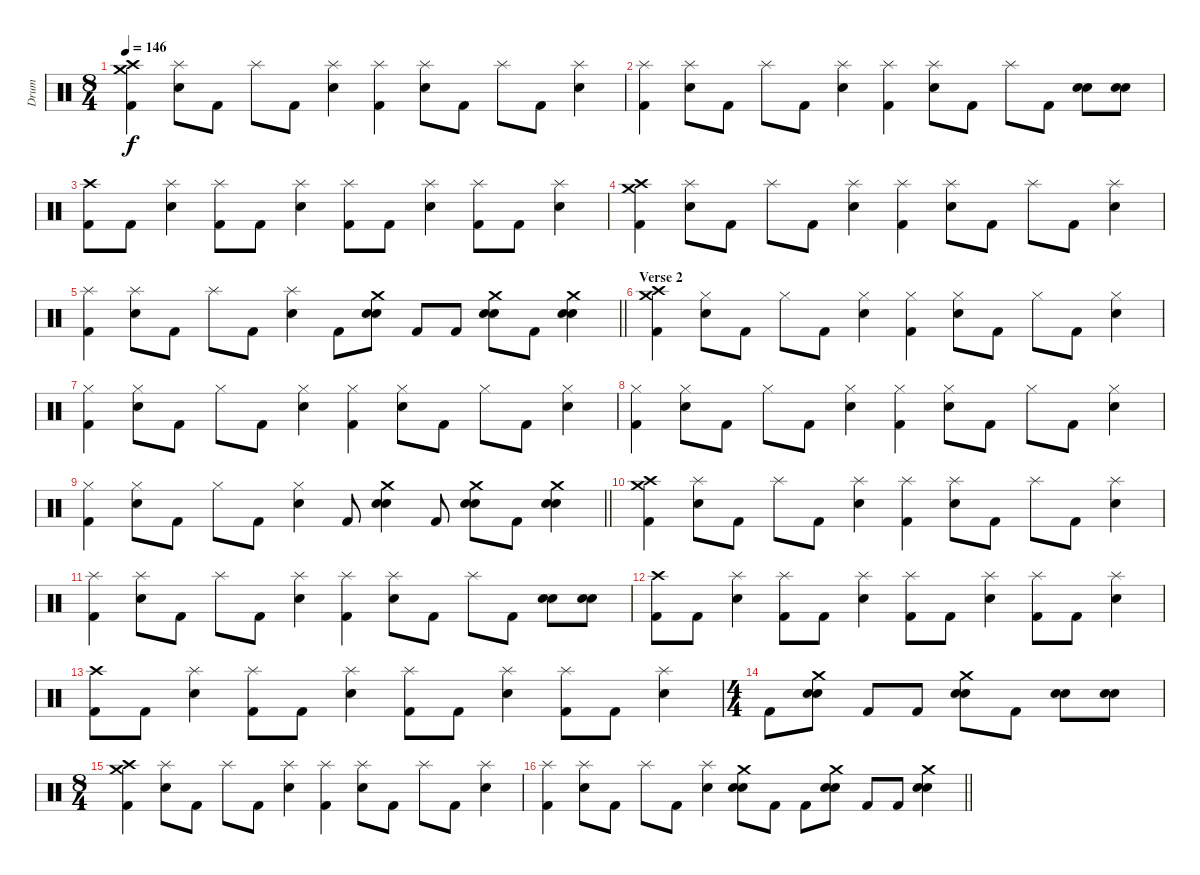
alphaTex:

\track ("Drum" "Drum") {instrument percussion}
\staff {score}
\articulation defaults
\ts (8 4)
\section ("" "")
\tempo 146
\clef neutral
\ks c
("Kick (hit) 2" "Crash high (hit)" "Crash medium (hit)").4{dy f} ("Splash (hit)" "Electric Snare (hit)").8 "Kick (hit) 2".8 "Splash (hit)".8 "Kick (hit) 2".8 ("Splash (hit)" "Electric Snare (hit)").4 ("Splash (hit)" "Kick (hit) 2").4 ("Splash (hit)" "Electric Snare (hit)").8 "Kick (hit) 2".8 "Splash (hit)".8 "Kick (hit) 2".8 ("Splash (hit)" "Electric Snare (hit)").4 |
("Splash (hit)" "Kick (hit) 2").4 ("Splash (hit)" "Electric Snare (hit)").8 "Kick (hit) 2".8 "Splash (hit)".8 "Kick (hit) 2".8 ("Splash (hit)" "Electric Snare (hit)").4 ("Splash (hit)" "Kick (hit) 2").4 ("Splash (hit)" "Electric Snare (hit)").8 "Kick (hit) 2".8 "Splash (hit)".8 "Kick (hit) 2".8 ("Electric Snare (hit)" "Electric Snare (hit)").8 ("Electric Snare (hit)" "Electric Snare (hit)").8 |
("Kick (hit) 2" "Crash high (hit)").8 "Kick (hit) 2".8 ("Splash (hit)" "Electric Snare (hit)").4 ("Splash (hit)" "Kick (hit) 2").8 "Kick (hit) 2".8 ("Splash (hit)" "Electric Snare (hit)").4 ("Splash (hit)" "Kick (hit) 2").8 "Kick (hit) 2".8 ("Splash (hit)" "Electric Snare (hit)").4 ("Splash (hit)" "Kick (hit) 2").8 "Kick (hit) 2".8 ("Splash (hit)" "Electric Snare (hit)").4 |
("Kick (hit) 2" "Crash high (hit)" "Crash medium (hit)").4 ("Splash (hit)" "Electric Snare (hit)").8 "Kick (hit) 2".8 "Splash (hit)".8 "Kick (hit) 2".8 ("Splash (hit)" "Electric Snare (hit)").4 ("Splash (hit)" "Kick (hit) 2").4 ("Splash (hit)" "Electric Snare (hit)").8 "Kick (hit) 2".8 "Splash (hit)".8 "Kick (hit) 2".8 ("Splash (hit)" "Electric Snare (hit)").4 |
\barLineRight lightlight
("Splash (hit)" "Kick (hit) 2").4 ("Splash (hit)" "Electric Snare (hit)").8 "Kick (hit) 2".8 "Splash (hit)".8 "Kick (hit) 2".8 ("Splash (hit)" "Electric Snare (hit)").4 "Kick (hit) 2".8 ("Electric Snare (hit)" "Electric Snare (hit)" "Crash medium (hit)").8 "Kick (hit) 2".8 "Kick (hit) 2".8 ("Electric Snare (hit)" "Electric Snare (hit)" "Crash medium (hit)").8 "Kick (hit) 2".8 ("Electric Snare (hit)" "Electric Snare (hit)" "Crash medium (hit)").4 |
\section ("" "Verse 2")
("Kick (hit) 2" "Crash high (hit)" "Crash medium (hit)").4 ("Hi-Hat (closed)" "Electric Snare (hit)").8 "Kick (hit) 2".8 "Hi-Hat (closed)".8 "Kick (hit) 2".8 ("Hi-Hat (closed)" "Electric Snare (hit)").4 ("Hi-Hat (closed)" "Kick (hit) 2").4 ("Hi-Hat (closed)" "Electric Snare (hit)").8 "Kick (hit) 2".8 "Hi-Hat (closed)".8 "Kick (hit) 2".8 ("Hi-Hat (closed)" "Electric Snare (hit)").4 |
("Hi-Hat (closed)" "Kick (hit) 2").4 ("Hi-Hat (closed)" "Electric Snare (hit)").8 "Kick (hit) 2".8 "Hi-Hat (closed)".8 "Kick (hit) 2".8 ("Hi-Hat (closed)" "Electric Snare (hit)").4 ("Hi-Hat (closed)" "Kick (hit) 2").4 ("Hi-Hat (closed)" "Electric Snare (hit)").8 "Kick (hit) 2".8 "Hi-Hat (closed)".8 "Kick (hit) 2".8 ("Hi-Hat (closed)" "Electric Snare (hit)").4 |
("Hi-Hat (closed)" "Kick (hit) 2").4 ("Hi-Hat (closed)" "Electric Snare (hit)").8 "Kick (hit) 2".8 "Hi-Hat (closed)".8 "Kick (hit) 2".8 ("Hi-Hat (closed)" "Electric Snare (hit)").4 ("Hi-Hat (closed)" "Kick (hit) 2").4 ("Hi-Hat (closed)" "Electric Snare (hit)").8 "Kick (hit) 2".8 "Hi-Hat (closed)".8 "Kick (hit) 2".8 ("Hi-Hat (closed)" "Electric Snare (hit)").4 |
\barLineRight lightlight
("Hi-Hat (closed)" "Kick (hit) 2").4 ("Hi-Hat (closed)" "Electric Snare (hit)").8 "Kick (hit) 2".8 "Hi-Hat (closed)".8 "Kick (hit) 2".8 ("Hi-Hat (closed)" "Electric Snare (hit)").4 "Kick (hit) 2".8 ("Electric Snare (hit)" "Electric Snare (hit)" "Crash medium (hit)").4 "Kick (hit) 2".8 ("Electric Snare (hit)" "Electric Snare (hit)" "Crash medium (hit)").8 "Kick (hit) 2".8 ("Electric Snare (hit)" "Electric Snare (hit)" "Crash medium (hit)").4 |
\section ("" "")
("Kick (hit) 2" "Crash high (hit)" "Crash medium (hit)").4 ("Splash (hit)" "Electric Snare (hit)").8 "Kick (hit) 2".8 "Splash (hit)".8 "Kick (hit) 2".8 ("Splash (hit)" "Electric Snare (hit)").4 ("Splash (hit)" "Kick (hit) 2").4 ("Splash (hit)" "Electric Snare (hit)").8 "Kick (hit) 2".8 "Splash (hit)".8 "Kick (hit) 2".8 ("Splash (hit)" "Electric Snare (hit)").4 |
("Splash (hit)" "Kick (hit) 2").4 ("Splash (hit)" "Electric Snare (hit)").8 "Kick (hit) 2".8 "Splash (hit)".8 "Kick (hit) 2".8 ("Splash (hit)" "Electric Snare (hit)").4 ("Splash (hit)" "Kick (hit) 2").4 ("Splash (hit)" "Electric Snare (hit)").8 "Kick (hit) 2".8 "Splash (hit)".8 "Kick (hit) 2".8 ("Electric Snare (hit)" "Electric Snare (hit)").8 ("Electric Snare (hit)" "Electric Snare (hit)").8 |
("Kick (hit) 2" "Crash high (hit)").8 "Kick (hit) 2".8 ("Splash (hit)" "Electric Snare (hit)").4 ("Splash (hit)" "Kick (hit) 2").8 "Kick (hit) 2".8 ("Splash (hit)" "Electric Snare (hit)").4 ("Splash (hit)" "Kick (hit) 2").8 "Kick (hit) 2".8 ("Splash (hit)" "Electric Snare (hit)").4 ("Splash (hit)" "Kick (hit) 2").8 "Kick (hit) 2".8 ("Splash (hit)" "Electric Snare (hit)").4 |
("Kick (hit) 2" "Crash high (hit)").8 "Kick (hit) 2".8 ("Splash (hit)" "Electric Snare (hit)").4 ("Splash (hit)" "Kick (hit) 2").8 "Kick (hit) 2".8 ("Splash (hit)" "Electric Snare (hit)").4 ("Splash (hit)" "Kick (hit) 2").8 "Kick (hit) 2".8 ("Splash (hit)" "Electric Snare (hit)").4 ("Splash (hit)" "Kick (hit) 2").8 "Kick (hit) 2".8 ("Splash (hit)" "Electric Snare (hit)").4 |
\ts (4 4)
"Kick (hit) 2".8 ("Electric Snare (hit)" "Electric Snare (hit)" "Crash medium (hit)").8 "Kick (hit) 2".8 "Kick (hit) 2".8 ("Electric Snare (hit)" "Electric Snare (hit)" "Crash medium (hit)").8 "Kick (hit) 2".8 ("Electric Snare (hit)" "Electric Snare (hit)").8 ("Electric Snare (hit)" "Electric Snare (hit)").8 |
\ts (8 4)
("Kick (hit) 2" "Crash high (hit)" "Crash medium (hit)").4 ("Splash (hit)" "Electric Snare (hit)").8 "Kick (hit) 2".8 "Splash (hit)".8 "Kick (hit) 2".8 ("Splash (hit)" "Electric Snare (hit)").4 ("Splash (hit)" "Kick (hit) 2").4 ("Splash (hit)" "Electric Snare (hit)").8 "Kick (hit) 2".8 "Splash (hit)".8 "Kick (hit) 2".8 ("Splash (hit)" "Electric Snare (hit)").4 |
\barLineRight lightlight
("Splash (hit)" "Kick (hit) 2").4 ("Splash (hit)" "Electric Snare (hit)").8 "Kick (hit) 2".8 "Splash (hit)".8 "Kick (hit) 2".8 ("Splash (hit)" "Electric Snare (hit)").4 ("Electric Snare (hit)" "Electric Snare (hit)" "Crash medium (hit)").8 "Kick (hit) 2".8 "Kick (hit) 2".8 ("Electric Snare (hit)" "Electric Snare (hit)" "Crash medium (hit)").8 "Kick (hit) 2".8 "Kick (hit) 2".8 ("Electric Snare (hit)" "Electric Snare (hit)" "Crash medium (hit)").4
